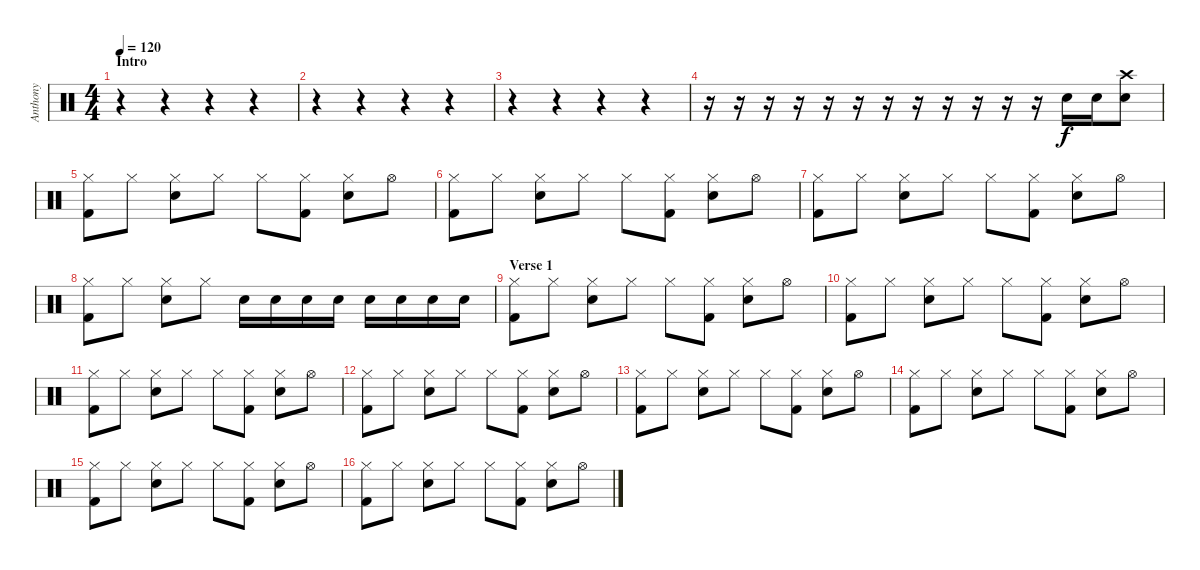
\track ("Anthony" "Anthony") {instrument percussion}
\staff {score}
\articulation defaults
\ts (4 4)
\section ("" "Intro")
\tempo 120
\clef neutral
\ks c
r.4{dy f} r.4 r.4 r.4 |
r.4 r.4 r.4 r.4 |
r.4 r.4 r.4 r.4 |
r.16 r.16 r.16 r.16 r.16 r.16 r.16 r.16 r.16 r.16 r.16 r.16 "Snare (hit) 2".16 "Snare (hit) 2".16 ("Snare (hit) 2" "Crash high (hit)").8 |
("Hi-Hat (closed)" "Kick (hit) 2").8 "Hi-Hat (closed)".8 ("Hi-Hat (closed)" "Snare (hit) 2").8 "Hi-Hat (closed)".8 "Hi-Hat (closed)".8 ("Hi-Hat (closed)" "Kick (hit) 2").8 ("Hi-Hat (closed)" "Snare (hit) 2").8 "Hi-Hat (open)".8 |
("Hi-Hat (closed)" "Kick (hit) 2").8 "Hi-Hat (closed)".8 ("Hi-Hat (closed)" "Snare (hit) 2").8 "Hi-Hat (closed)".8 "Hi-Hat (closed)".8 ("Hi-Hat (closed)" "Kick (hit) 2").8 ("Hi-Hat (closed)" "Snare (hit) 2").8 "Hi-Hat (open)".8 |
("Hi-Hat (closed)" "Kick (hit) 2").8 "Hi-Hat (closed)".8 ("Hi-Hat (closed)" "Snare (hit) 2").8 "Hi-Hat (closed)".8 "Hi-Hat (closed)".8 ("Hi-Hat (closed)" "Kick (hit) 2").8 ("Hi-Hat (closed)" "Snare (hit) 2").8 "Hi-Hat (open)".8 |
("Hi-Hat (closed)" "Kick (hit) 2").8 "Hi-Hat (closed)".8 ("Hi-Hat (closed)" "Snare (hit) 2").8 "Hi-Hat (closed)".8 "Snare (hit) 2".16 "Snare (hit) 2".16 "Snare (hit) 2".16 "Snare (hit) 2".16 "Snare (hit) 2".16 "Snare (hit) 2".16 "Snare (hit) 2".16 "Snare (hit) 2".16 |
\section ("" "Verse 1")
("Hi-Hat (closed)" "Kick (hit) 2").8 "Hi-Hat (closed)".8 ("Hi-Hat (closed)" "Snare (hit) 2").8 "Hi-Hat (closed)".8 "Hi-Hat (closed)".8 ("Hi-Hat (closed)" "Kick (hit) 2").8 ("Hi-Hat (closed)" "Snare (hit) 2").8 "Hi-Hat (open)".8 |
("Hi-Hat (closed)" "Kick (hit) 2").8 "Hi-Hat (closed)".8 ("Hi-Hat (closed)" "Snare (hit) 2").8 "Hi-Hat (closed)".8 "Hi-Hat (closed)".8 ("Hi-Hat (closed)" "Kick (hit) 2").8 ("Hi-Hat (closed)" "Snare (hit) 2").8 "Hi-Hat (open)".8 |
("Hi-Hat (closed)" "Kick (hit) 2").8 "Hi-Hat (closed)".8 ("Hi-Hat (closed)" "Snare (hit) 2").8 "Hi-Hat (closed)".8 "Hi-Hat (closed)".8 ("Hi-Hat (closed)" "Kick (hit) 2").8 ("Hi-Hat (closed)" "Snare (hit) 2").8 "Hi-Hat (open)".8 |
("Hi-Hat (closed)" "Kick (hit) 2").8 "Hi-Hat (closed)".8 ("Hi-Hat (closed)" "Snare (hit) 2").8 "Hi-Hat (closed)".8 "Hi-Hat (closed)".8 ("Hi-Hat (closed)" "Kick (hit) 2").8 ("Hi-Hat (closed)" "Snare (hit) 2").8 "Hi-Hat (open)".8 |
("Hi-Hat (closed)" "Kick (hit) 2").8 "Hi-Hat (closed)".8 ("Hi-Hat (closed)" "Snare (hit) 2").8 "Hi-Hat (closed)".8 "Hi-Hat (closed)".8 ("Hi-Hat (closed)" "Kick (hit) 2").8 ("Hi-Hat (closed)" "Snare (hit) 2").8 "Hi-Hat (open)".8 |
("Hi-Hat (closed)" "Kick (hit) 2").8 "Hi-Hat (closed)".8 ("Hi-Hat (closed)" "Snare (hit) 2").8 "Hi-Hat (closed)".8 "Hi-Hat (closed)".8 ("Hi-Hat (closed)" "Kick (hit) 2").8 ("Hi-Hat (closed)" "Snare (hit) 2").8 "Hi-Hat (open)".8 |
("Hi-Hat (closed)" "Kick (hit) 2").8 "Hi-Hat (closed)".8 ("Hi-Hat (closed)" "Snare (hit) 2").8 "Hi-Hat (closed)".8 "Hi-Hat (closed)".8 ("Hi-Hat (closed)" "Kick (hit) 2").8 ("Hi-Hat (closed)" "Snare (hit) 2").8 "Hi-Hat (open)".8 |
("Hi-Hat (closed)" "Kick (hit) 2").8 "Hi-Hat (closed)".8 ("Hi-Hat (closed)" "Snare (hit) 2").8 "Hi-Hat (closed)".8 "Hi-Hat (closed)".8 ("Hi-Hat (closed)" "Kick (hit) 2").8 ("Hi-Hat (closed)" "Snare (hit) 2").8 "Hi-Hat (open)".8
